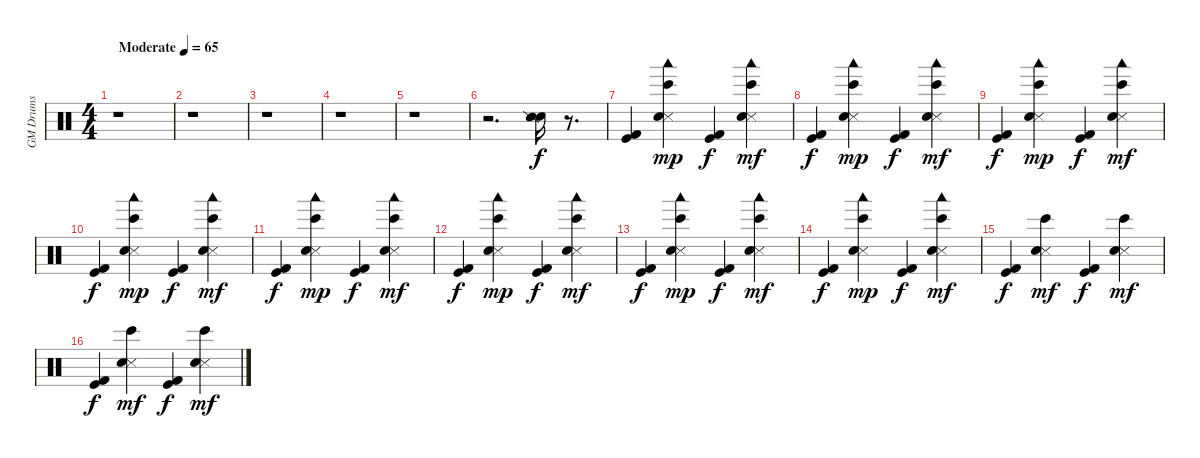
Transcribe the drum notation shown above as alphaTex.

\track ("GM Drums" "GM Drums") {instrument percussion}
\staff {score}
\articulation defaults
\ts (4 4)
\tempo (65 "Moderate")
\clef neutral
\ks c
r.1{dy f} |
r.1 |
r.1 |
r.1 |
r.1 |
r.2{d} ("Electric Snare (hit)" "Snare (side stick) 2").16 r.8{d} |
("Kick (hit)" "Kick (hit) 2").4 ("Bongo High (hit)" "Snare (side stick) 3" "Hand Clap (hit)" "Woodblock low (hit)").4{dy mp} ("Kick (hit)" "Kick (hit) 2").4{dy f} ("Bongo High (hit)" "Snare (side stick) 3" "Hand Clap (hit)" "Woodblock low (hit)").4{dy mf} |
("Kick (hit)" "Kick (hit) 2").4{dy f} ("Bongo High (hit)" "Snare (side stick) 3" "Hand Clap (hit)" "Woodblock low (hit)").4{dy mp} ("Kick (hit)" "Kick (hit) 2").4{dy f} ("Bongo High (hit)" "Snare (side stick) 3" "Hand Clap (hit)" "Woodblock low (hit)").4{dy mf} |
("Kick (hit)" "Kick (hit) 2").4{dy f} ("Bongo High (hit)" "Snare (side stick) 3" "Hand Clap (hit)" "Woodblock low (hit)").4{dy mp} ("Kick (hit)" "Kick (hit) 2").4{dy f} ("Bongo High (hit)" "Snare (side stick) 3" "Hand Clap (hit)" "Woodblock low (hit)").4{dy mf} |
("Kick (hit)" "Kick (hit) 2").4{dy f} ("Bongo High (hit)" "Snare (side stick) 3" "Hand Clap (hit)" "Woodblock low (hit)").4{dy mp} ("Kick (hit)" "Kick (hit) 2").4{dy f} ("Bongo High (hit)" "Snare (side stick) 3" "Hand Clap (hit)" "Woodblock low (hit)").4{dy mf} |
("Kick (hit)" "Kick (hit) 2").4{dy f} ("Bongo High (hit)" "Snare (side stick) 3" "Hand Clap (hit)" "Woodblock low (hit)").4{dy mp} ("Kick (hit)" "Kick (hit) 2").4{dy f} ("Bongo High (hit)" "Snare (side stick) 3" "Hand Clap (hit)" "Woodblock low (hit)").4{dy mf} |
("Kick (hit)" "Kick (hit) 2").4{dy f} ("Bongo High (hit)" "Snare (side stick) 3" "Hand Clap (hit)" "Woodblock low (hit)").4{dy mp} ("Kick (hit)" "Kick (hit) 2").4{dy f} ("Bongo High (hit)" "Snare (side stick) 3" "Hand Clap (hit)" "Woodblock low (hit)").4{dy mf} |
("Kick (hit)" "Kick (hit) 2").4{dy f} ("Bongo High (hit)" "Snare (side stick) 3" "Hand Clap (hit)" "Woodblock low (hit)").4{dy mp} ("Kick (hit)" "Kick (hit) 2").4{dy f} ("Bongo High (hit)" "Snare (side stick) 3" "Hand Clap (hit)" "Woodblock low (hit)").4{dy mf} |
("Kick (hit)" "Kick (hit) 2").4{dy f} ("Bongo High (hit)" "Snare (side stick) 3" "Hand Clap (hit)" "Woodblock low (hit)").4{dy mp} ("Kick (hit)" "Kick (hit) 2").4{dy f} ("Bongo High (hit)" "Snare (side stick) 3" "Hand Clap (hit)" "Woodblock low (hit)").4{dy mf} |
("Kick (hit)" "Kick (hit) 2").4{dy f} ("Bongo High (hit)" "Snare (side stick) 3" "Hand Clap (hit)").4{dy mf} ("Kick (hit)" "Kick (hit) 2").4{dy f} ("Bongo High (hit)" "Snare (side stick) 3" "Hand Clap (hit)").4{dy mf} |
("Kick (hit)" "Kick (hit) 2").4{dy f} ("Bongo High (hit)" "Snare (side stick) 3" "Hand Clap (hit)").4{dy mf} ("Kick (hit)" "Kick (hit) 2").4{dy f} ("Bongo High (hit)" "Snare (side stick) 3" "Hand Clap (hit)").4{dy mf}
